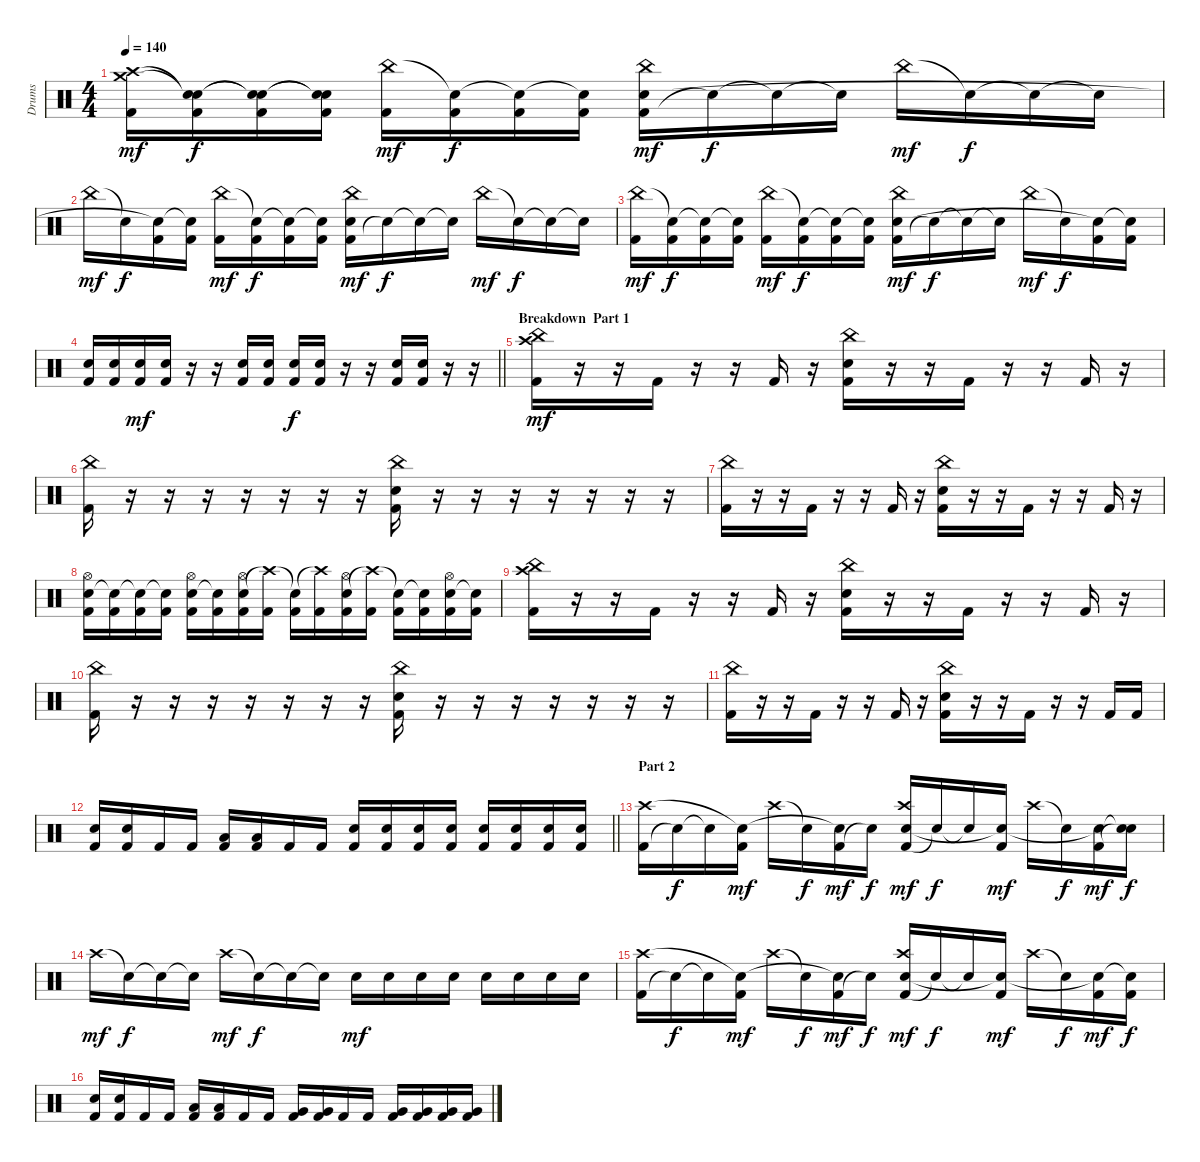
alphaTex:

\track ("Drums" "Drums") {instrument percussion}
\staff {score}
\articulation defaults
\ts (4 4)
\tempo 140
\clef neutral
\ks c
("Kick (hit) 2" "Crash high (hit)" "Crash medium (hit)").16{dy mf} ("Kick (hit) 2" "Snare (hit)"{t} "Snare (hit)"{t}).16{dy f} ("Kick (hit) 2" "Snare (hit)"{t} "Snare (hit)"{t}).16 ("Kick (hit) 2" "Snare (hit)"{t} "Snare (hit)"{t}).16 ("Kick (hit) 2" "China (hit)").16{dy mf} ("Kick (hit) 2" "Snare (hit)"{t}).16{dy f} ("Kick (hit) 2" "Snare (hit)"{t}).16 ("Kick (hit) 2" "Snare (hit)"{t}).16 ("Kick (hit) 2" "Snare (hit) 2" "China (hit)").16{dy mf} "Snare (hit)"{t}.16{dy f} "Snare (hit)"{t}.16 "Snare (hit)"{t}.16 "China (hit)".16{dy mf} "Snare (hit)"{t}.16{dy f} "Snare (hit)"{t}.16 "Snare (hit)"{t}.16 |
"China (hit)".16{dy mf} "Snare (hit)"{t}.16{dy f} ("Kick (hit) 2" "Snare (hit)"{t}).16 ("Kick (hit) 2" "Snare (hit)"{t}).16 ("Kick (hit) 2" "China (hit)").16{dy mf} ("Kick (hit) 2" "Snare (hit)"{t}).16{dy f} ("Kick (hit) 2" "Snare (hit)"{t}).16 ("Kick (hit) 2" "Snare (hit)"{t}).16 ("Kick (hit) 2" "Snare (hit) 2" "China (hit)").16{dy mf} "Snare (hit)"{t}.16{dy f} "Snare (hit)"{t}.16 "Snare (hit)"{t}.16 "China (hit)".16{dy mf} "Snare (hit)"{t}.16{dy f} "Snare (hit)"{t}.16 "Snare (hit)"{t}.16 |
("Kick (hit) 2" "China (hit)").16{dy mf} ("Kick (hit) 2" "Snare (hit)"{t}).16{dy f} ("Kick (hit) 2" "Snare (hit)"{t}).16 ("Kick (hit) 2" "Snare (hit)"{t}).16 ("Kick (hit) 2" "China (hit)").16{dy mf} ("Kick (hit) 2" "Snare (hit)"{t}).16{dy f} ("Kick (hit) 2" "Snare (hit)"{t}).16 ("Kick (hit) 2" "Snare (hit)"{t}).16 ("Kick (hit) 2" "Snare (hit) 2" "China (hit)").16{dy mf} "Snare (hit)"{t}.16{dy f} "Snare (hit)"{t}.16 "Snare (hit)"{t}.16 "China (hit)".16{dy mf} "Snare (hit)"{t}.16{dy f} ("Kick (hit) 2" "Snare (hit)"{t}).16 ("Kick (hit) 2" "Snare (hit)"{t}).16 |
\barLineRight lightlight
("Kick (hit) 2" "Snare (hit) 2").16 ("Kick (hit) 2" "Snare (hit) 2").16 ("Kick (hit) 2" "Snare (hit) 2").16{dy mf} ("Kick (hit) 2" "Snare (hit) 2").16 r.16 r.16 ("Kick (hit) 2" "Snare (hit) 2").16 ("Kick (hit) 2" "Snare (hit) 2").16 ("Kick (hit) 2" "Snare (hit) 2").16{dy f} ("Kick (hit) 2" "Snare (hit) 2").16 r.16 r.16 ("Kick (hit) 2" "Snare (hit) 2").16 ("Kick (hit) 2" "Snare (hit) 2").16 r.16 r.16 |
\section ("" "Breakdown  Part 1")
("Kick (hit) 2" "China (hit)" "Crash high (hit)").16{dy mf} r.16 r.16 "Kick (hit) 2".16 r.16 r.16 "Kick (hit) 2".16 r.16 ("Kick (hit) 2" "Snare (hit) 2" "China (hit)").16 r.16 r.16 "Kick (hit) 2".16 r.16 r.16 "Kick (hit) 2".16 r.16 |
("Kick (hit) 2" "China (hit)").16 r.16 r.16 r.16 r.16 r.16 r.16 r.16 ("Kick (hit) 2" "Snare (hit) 2" "China (hit)").16 r.16 r.16 r.16 r.16 r.16 r.16 r.16 |
("Kick (hit) 2" "China (hit)").16 r.16 r.16 "Kick (hit) 2".16 r.16 r.16 "Kick (hit) 2".16 r.16 ("Kick (hit) 2" "Snare (hit) 2" "China (hit)").16 r.16 r.16 "Kick (hit) 2".16 r.16 r.16 "Kick (hit) 2".16 r.16 |
("Kick (hit) 2" "Snare (hit) 2" "Hi-Hat (open)").16 ("Kick (hit) 2" "Snare (hit)"{t}).16 ("Kick (hit) 2" "Snare (hit)"{t}).16 ("Kick (hit) 2" "Snare (hit)"{t}).16 ("Kick (hit) 2" "Snare (hit) 2" "Hi-Hat (open)").16 ("Kick (hit) 2" "Snare (hit)"{t}).16 ("Kick (hit) 2" "Snare (hit) 2" "Hi-Hat (open)").16 ("Kick (hit) 2" "Crash high (hit)"{t}).16 ("Kick (hit) 2" "Snare (hit)"{t}).16 ("Kick (hit) 2" "Crash high (hit)"{t}).16 ("Kick (hit) 2" "Snare (hit) 2" "Hi-Hat (open)").16 ("Kick (hit) 2" "Crash high (hit)"{t}).16 ("Kick (hit) 2" "Snare (hit)"{t}).16 ("Kick (hit) 2" "Snare (hit)"{t}).16 ("Kick (hit) 2" "Snare (hit) 2" "Hi-Hat (open)").16 ("Kick (hit) 2" "Snare (hit)"{t}).16 |
("Kick (hit) 2" "China (hit)" "Crash high (hit)").16 r.16 r.16 "Kick (hit) 2".16 r.16 r.16 "Kick (hit) 2".16 r.16 ("Kick (hit) 2" "Snare (hit) 2" "China (hit)").16 r.16 r.16 "Kick (hit) 2".16 r.16 r.16 "Kick (hit) 2".16 r.16 |
("Kick (hit) 2" "China (hit)").16 r.16 r.16 r.16 r.16 r.16 r.16 r.16 ("Kick (hit) 2" "Snare (hit) 2" "China (hit)").16 r.16 r.16 r.16 r.16 r.16 r.16 r.16 |
("Kick (hit) 2" "China (hit)").16 r.16 r.16 "Kick (hit) 2".16 r.16 r.16 "Kick (hit) 2".16 r.16 ("Kick (hit) 2" "Snare (hit) 2" "China (hit)").16 r.16 r.16 "Kick (hit) 2".16 r.16 r.16 "Kick (hit) 2".16 "Kick (hit) 2".16 |
\barLineRight lightlight
("Kick (hit) 2" "Snare (hit) 2").16 ("Kick (hit) 2" "Snare (hit) 2").16 "Kick (hit) 2".16 "Kick (hit) 2".16 ("Kick (hit) 2" "Low Tom (hit)").16 ("Kick (hit) 2" "Low Tom (hit)").16 "Kick (hit) 2".16 "Kick (hit) 2".16 ("Kick (hit) 2" "Snare (hit) 2").16 ("Kick (hit) 2" "Snare (hit) 2").16 ("Kick (hit) 2" "Snare (hit) 2").16 ("Kick (hit) 2" "Snare (hit) 2").16 ("Kick (hit) 2" "Snare (hit) 2").16 ("Kick (hit) 2" "Snare (hit) 2").16 ("Kick (hit) 2" "Snare (hit) 2").16 ("Kick (hit) 2" "Snare (hit) 2").16 |
\section ("" "Part 2")
("Kick (hit) 2" "Crash high (hit)").16 "Snare (hit)"{t}.16{dy f} "Snare (hit)"{t}.16 ("Kick (hit) 2" "Snare (hit)"{t}).16{dy mf} "Crash high (hit)".16 "Snare (hit)"{t}.16{dy f} ("Kick (hit) 2" "Snare (hit)"{t}).16{dy mf} "Snare (hit)"{t}.16{dy f} ("Kick (hit) 2" "Snare (hit) 2" "Crash high (hit)").16{dy mf} "Snare (hit)"{t}.16{dy f} "Snare (hit)"{t}.16 ("Kick (hit) 2" "Snare (hit)"{t}).16{dy mf} "Crash high (hit)".16 "Snare (hit)"{t}.16{dy f} ("Kick (hit) 2" "Snare (hit)"{t}).16{dy mf} ("Snare (hit)"{t} "Snare (hit)"{t}).16{dy f} |
"Crash high (hit)".16{dy mf} "Snare (hit)"{t}.16{dy f} "Snare (hit)"{t}.16 "Snare (hit)"{t}.16 "Crash high (hit)".16{dy mf} "Snare (hit)"{t}.16{dy f} "Snare (hit)"{t}.16 "Snare (hit)"{t}.16 "Snare (hit) 2".16{dy mf} "Snare (hit) 2".16 "Snare (hit) 2".16 "Snare (hit) 2".16 "Snare (hit) 2".16 "Snare (hit) 2".16 "Snare (hit) 2".16 "Snare (hit) 2".16 |
("Kick (hit) 2" "Crash high (hit)").16 "Snare (hit)"{t}.16{dy f} "Snare (hit)"{t}.16 ("Kick (hit) 2" "Snare (hit)"{t}).16{dy mf} "Crash high (hit)".16 "Snare (hit)"{t}.16{dy f} ("Kick (hit) 2" "Snare (hit)"{t}).16{dy mf} "Snare (hit)"{t}.16{dy f} ("Kick (hit) 2" "Snare (hit) 2" "Crash high (hit)").16{dy mf} "Snare (hit)"{t}.16{dy f} "Snare (hit)"{t}.16 ("Kick (hit) 2" "Snare (hit)"{t}).16{dy mf} "Crash high (hit)".16 "Snare (hit)"{t}.16{dy f} ("Kick (hit) 2" "Snare (hit)"{t}).16{dy mf} ("Kick (hit) 2" "Snare (hit)"{t}).16{dy f} |
("Kick (hit) 2" "Snare (hit) 2").16 ("Kick (hit) 2" "Snare (hit) 2").16 "Kick (hit) 2".16 "Kick (hit) 2".16 ("Kick (hit) 2" "Low Tom (hit)").16 ("Kick (hit) 2" "Low Tom (hit)").16 "Kick (hit) 2".16 "Kick (hit) 2".16 ("Kick (hit) 2" "Very Low Tom (hit)").16 ("Kick (hit) 2" "Very Low Tom (hit)").16 "Kick (hit) 2".16 "Kick (hit) 2".16 ("Kick (hit) 2" "Very Low Tom (hit)").16 ("Kick (hit) 2" "Very Low Tom (hit)").16 ("Kick (hit) 2" "Very Low Tom (hit)").16 ("Kick (hit) 2" "Very Low Tom (hit)").16
